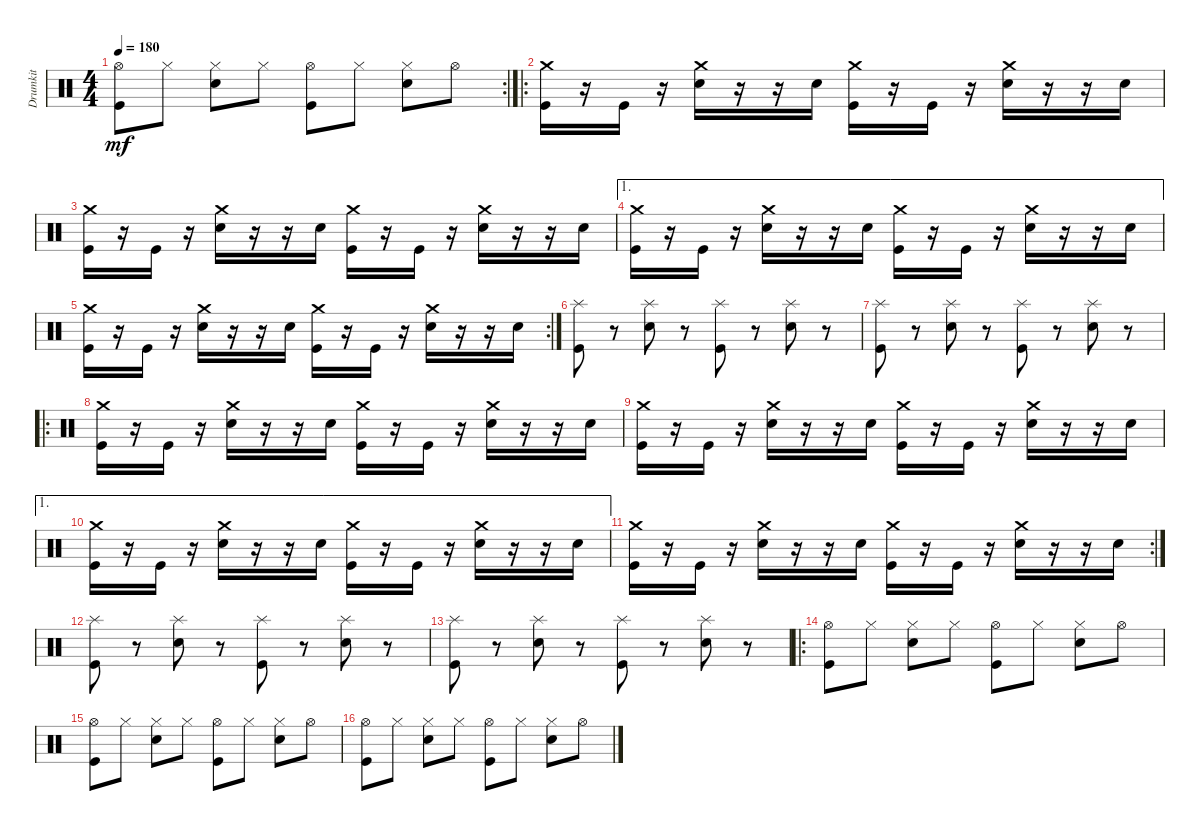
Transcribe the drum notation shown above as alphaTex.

\track ("Drumkit" "Drumkit") {instrument percussion}
\staff {score}
\articulation defaults
\rc 2
\ts (4 4)
\tempo 180
\clef neutral
\ks c
("Kick (hit)" "Hi-Hat (open)").8{dy mf} "Hi-Hat (closed)".8 ("Snare (hit) 2" "Hi-Hat (closed)").8 "Hi-Hat (closed)".8 ("Kick (hit)" "Hi-Hat (open)").8 "Hi-Hat (closed)".8 ("Snare (hit) 2" "Hi-Hat (closed)").8 "Hi-Hat (open)".8 |
\ro
("Kick (hit)" "Crash medium (hit)").16 r.16 "Kick (hit)".16 r.16 ("Snare (hit) 2" "Crash medium (hit)").16 r.16 r.16 "Snare (hit) 2".16 ("Kick (hit)" "Crash medium (hit)").16 r.16 "Kick (hit)".16 r.16 ("Snare (hit) 2" "Crash medium (hit)").16 r.16 r.16 "Snare (hit) 2".16 |
("Kick (hit)" "Crash medium (hit)").16 r.16 "Kick (hit)".16 r.16 ("Snare (hit) 2" "Crash medium (hit)").16 r.16 r.16 "Snare (hit) 2".16 ("Kick (hit)" "Crash medium (hit)").16 r.16 "Kick (hit)".16 r.16 ("Snare (hit) 2" "Crash medium (hit)").16 r.16 r.16 "Snare (hit) 2".16 |
\ae 1
("Kick (hit)" "Crash medium (hit)").16 r.16 "Kick (hit)".16 r.16 ("Snare (hit) 2" "Crash medium (hit)").16 r.16 r.16 "Snare (hit) 2".16 ("Kick (hit)" "Crash medium (hit)").16 r.16 "Kick (hit)".16 r.16 ("Snare (hit) 2" "Crash medium (hit)").16 r.16 r.16 "Snare (hit) 2".16 |
\rc 2
("Kick (hit)" "Crash medium (hit)").16 r.16 "Kick (hit)".16 r.16 ("Snare (hit) 2" "Crash medium (hit)").16 r.16 r.16 "Snare (hit) 2".16 ("Kick (hit)" "Crash medium (hit)").16 r.16 "Kick (hit)".16 r.16 ("Snare (hit) 2" "Crash medium (hit)").16 r.16 r.16 "Snare (hit) 2".16 |
("Kick (hit)" "Splash (hit)").8 r.8 ("Snare (hit) 2" "Splash (hit)").8 r.8 ("Kick (hit)" "Splash (hit)").8 r.8 ("Snare (hit) 2" "Splash (hit)").8 r.8 |
("Kick (hit)" "Splash (hit)").8 r.8 ("Snare (hit) 2" "Splash (hit)").8 r.8 ("Kick (hit)" "Splash (hit)").8 r.8 ("Snare (hit) 2" "Splash (hit)").8 r.8 |
\ro
("Kick (hit)" "Crash medium (hit)").16 r.16 "Kick (hit)".16 r.16 ("Snare (hit) 2" "Crash medium (hit)").16 r.16 r.16 "Snare (hit) 2".16 ("Kick (hit)" "Crash medium (hit)").16 r.16 "Kick (hit)".16 r.16 ("Snare (hit) 2" "Crash medium (hit)").16 r.16 r.16 "Snare (hit) 2".16 |
("Kick (hit)" "Crash medium (hit)").16 r.16 "Kick (hit)".16 r.16 ("Snare (hit) 2" "Crash medium (hit)").16 r.16 r.16 "Snare (hit) 2".16 ("Kick (hit)" "Crash medium (hit)").16 r.16 "Kick (hit)".16 r.16 ("Snare (hit) 2" "Crash medium (hit)").16 r.16 r.16 "Snare (hit) 2".16 |
\ae 1
("Kick (hit)" "Crash medium (hit)").16 r.16 "Kick (hit)".16 r.16 ("Snare (hit) 2" "Crash medium (hit)").16 r.16 r.16 "Snare (hit) 2".16 ("Kick (hit)" "Crash medium (hit)").16 r.16 "Kick (hit)".16 r.16 ("Snare (hit) 2" "Crash medium (hit)").16 r.16 r.16 "Snare (hit) 2".16 |
\rc 2
("Kick (hit)" "Crash medium (hit)").16 r.16 "Kick (hit)".16 r.16 ("Snare (hit) 2" "Crash medium (hit)").16 r.16 r.16 "Snare (hit) 2".16 ("Kick (hit)" "Crash medium (hit)").16 r.16 "Kick (hit)".16 r.16 ("Snare (hit) 2" "Crash medium (hit)").16 r.16 r.16 "Snare (hit) 2".16 |
("Kick (hit)" "Splash (hit)").8 r.8 ("Snare (hit) 2" "Splash (hit)").8 r.8 ("Kick (hit)" "Splash (hit)").8 r.8 ("Snare (hit) 2" "Splash (hit)").8 r.8 |
("Kick (hit)" "Splash (hit)").8 r.8 ("Snare (hit) 2" "Splash (hit)").8 r.8 ("Kick (hit)" "Splash (hit)").8 r.8 ("Snare (hit) 2" "Splash (hit)").8 r.8 |
\ro
("Kick (hit)" "Hi-Hat (open)").8 "Hi-Hat (closed)".8 ("Snare (hit) 2" "Hi-Hat (closed)").8 "Hi-Hat (closed)".8 ("Kick (hit)" "Hi-Hat (open)").8 "Hi-Hat (closed)".8 ("Snare (hit) 2" "Hi-Hat (closed)").8 "Hi-Hat (open)".8 |
("Kick (hit)" "Hi-Hat (open)").8 "Hi-Hat (closed)".8 ("Snare (hit) 2" "Hi-Hat (closed)").8 "Hi-Hat (closed)".8 ("Kick (hit)" "Hi-Hat (open)").8 "Hi-Hat (closed)".8 ("Snare (hit) 2" "Hi-Hat (closed)").8 "Hi-Hat (open)".8 |
("Kick (hit)" "Hi-Hat (open)").8 "Hi-Hat (closed)".8 ("Snare (hit) 2" "Hi-Hat (closed)").8 "Hi-Hat (closed)".8 ("Kick (hit)" "Hi-Hat (open)").8 "Hi-Hat (closed)".8 ("Snare (hit) 2" "Hi-Hat (closed)").8 "Hi-Hat (open)".8
